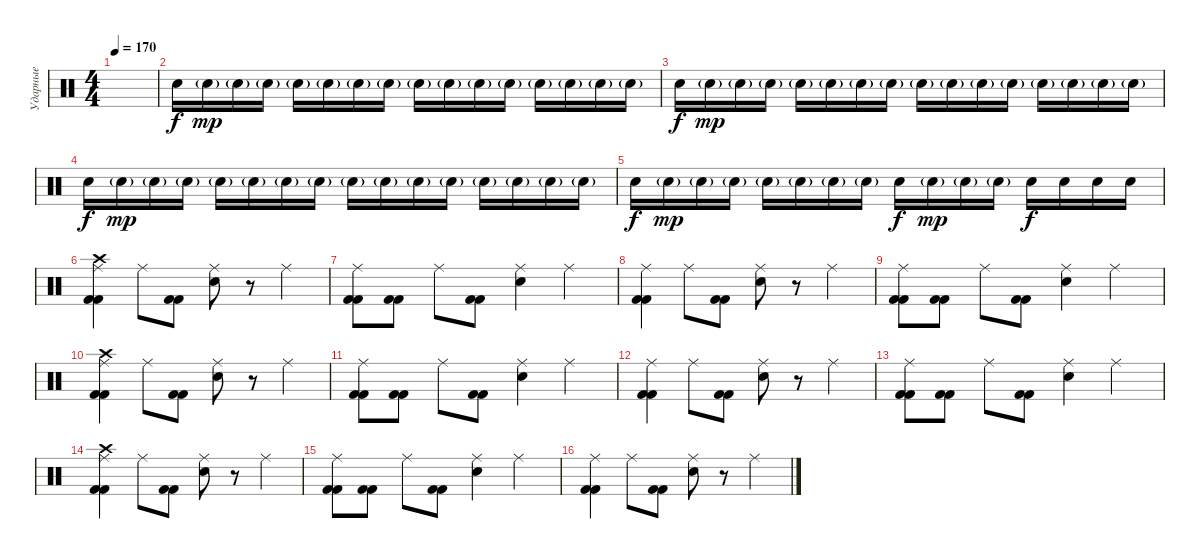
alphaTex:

\track ("Ударные" "Ударные") {instrument percussion}
\staff {score}
\articulation defaults
\ts (4 4)
\tempo 170
\clef neutral
\ks c
|
"Electric Snare (hit)".16{volume 7} "Electric Snare (hit)"{g}.16{dy mp volume 16} "Electric Snare (hit)"{g}.16 "Electric Snare (hit)"{g}.16 "Electric Snare (hit)"{g}.16 "Electric Snare (hit)"{g}.16 "Electric Snare (hit)"{g}.16 "Electric Snare (hit)"{g}.16 "Electric Snare (hit)"{g}.16 "Electric Snare (hit)"{g}.16 "Electric Snare (hit)"{g}.16 "Electric Snare (hit)"{g}.16 "Electric Snare (hit)"{g}.16 "Electric Snare (hit)"{g}.16 "Electric Snare (hit)"{g}.16 "Electric Snare (hit)"{g}.16 |
"Electric Snare (hit)".16{dy f} "Electric Snare (hit)"{g}.16{dy mp} "Electric Snare (hit)"{g}.16 "Electric Snare (hit)"{g}.16 "Electric Snare (hit)"{g}.16 "Electric Snare (hit)"{g}.16 "Electric Snare (hit)"{g}.16 "Electric Snare (hit)"{g}.16 "Electric Snare (hit)"{g}.16 "Electric Snare (hit)"{g}.16 "Electric Snare (hit)"{g}.16 "Electric Snare (hit)"{g}.16 "Electric Snare (hit)"{g}.16 "Electric Snare (hit)"{g}.16 "Electric Snare (hit)"{g}.16 "Electric Snare (hit)"{g}.16 |
"Electric Snare (hit)".16{dy f} "Electric Snare (hit)"{g}.16{dy mp} "Electric Snare (hit)"{g}.16 "Electric Snare (hit)"{g}.16 "Electric Snare (hit)"{g}.16 "Electric Snare (hit)"{g}.16 "Electric Snare (hit)"{g}.16 "Electric Snare (hit)"{g}.16 "Electric Snare (hit)"{g}.16 "Electric Snare (hit)"{g}.16 "Electric Snare (hit)"{g}.16 "Electric Snare (hit)"{g}.16 "Electric Snare (hit)"{g}.16 "Electric Snare (hit)"{g}.16 "Electric Snare (hit)"{g}.16 "Electric Snare (hit)"{g}.16 |
"Electric Snare (hit)".16{dy f} "Electric Snare (hit)"{g}.16{dy mp} "Electric Snare (hit)"{g}.16 "Electric Snare (hit)"{g}.16 "Electric Snare (hit)"{g}.16 "Electric Snare (hit)"{g}.16 "Electric Snare (hit)"{g}.16 "Electric Snare (hit)"{g}.16 "Electric Snare (hit)".16{dy f} "Electric Snare (hit)"{g}.16{dy mp} "Electric Snare (hit)"{g}.16 "Electric Snare (hit)"{g}.16 "Electric Snare (hit)".16{dy f} "Electric Snare (hit)".16 "Electric Snare (hit)".16 "Electric Snare (hit)".16 |
("Crash high (hit)" "Ride (middle)" "Kick (hit) 2" "Kick (hit) 2").4 "Ride (middle)".8 ("Kick (hit) 2" "Kick (hit) 2").8 ("Ride (middle)" "Electric Snare (hit)").8 r.8 "Ride (middle)".4 |
("Ride (middle)" "Kick (hit) 2" "Kick (hit) 2").8 ("Kick (hit) 2" "Kick (hit) 2").8 "Ride (middle)".8 ("Kick (hit) 2" "Kick (hit) 2").8 ("Ride (middle)" "Electric Snare (hit)").4 "Ride (middle)".4 |
("Ride (middle)" "Kick (hit) 2" "Kick (hit) 2").4 "Ride (middle)".8 ("Kick (hit) 2" "Kick (hit) 2").8 ("Ride (middle)" "Electric Snare (hit)").8 r.8 "Ride (middle)".4 |
("Ride (middle)" "Kick (hit) 2" "Kick (hit) 2").8 ("Kick (hit) 2" "Kick (hit) 2").8 "Ride (middle)".8 ("Kick (hit) 2" "Kick (hit) 2").8 ("Ride (middle)" "Electric Snare (hit)").4 "Ride (middle)".4 |
("Crash high (hit)" "Ride (middle)" "Kick (hit) 2" "Kick (hit) 2").4 "Ride (middle)".8 ("Kick (hit) 2" "Kick (hit) 2").8 ("Ride (middle)" "Electric Snare (hit)").8 r.8 "Ride (middle)".4 |
("Ride (middle)" "Kick (hit) 2" "Kick (hit) 2").8 ("Kick (hit) 2" "Kick (hit) 2").8 "Ride (middle)".8 ("Kick (hit) 2" "Kick (hit) 2").8 ("Ride (middle)" "Electric Snare (hit)").4 "Ride (middle)".4 |
("Ride (middle)" "Kick (hit) 2" "Kick (hit) 2").4 "Ride (middle)".8 ("Kick (hit) 2" "Kick (hit) 2").8 ("Ride (middle)" "Electric Snare (hit)").8 r.8 "Ride (middle)".4 |
("Ride (middle)" "Kick (hit) 2" "Kick (hit) 2").8 ("Kick (hit) 2" "Kick (hit) 2").8 "Ride (middle)".8 ("Kick (hit) 2" "Kick (hit) 2").8 ("Ride (middle)" "Electric Snare (hit)").4 "Ride (middle)".4 |
("Crash high (hit)" "Ride (middle)" "Kick (hit) 2" "Kick (hit) 2").4 "Ride (middle)".8 ("Kick (hit) 2" "Kick (hit) 2").8 ("Ride (middle)" "Electric Snare (hit)").8 r.8 "Ride (middle)".4 |
("Ride (middle)" "Kick (hit) 2" "Kick (hit) 2").8 ("Kick (hit) 2" "Kick (hit) 2").8 "Ride (middle)".8 ("Kick (hit) 2" "Kick (hit) 2").8 ("Ride (middle)" "Electric Snare (hit)").4 "Ride (middle)".4 |
("Ride (middle)" "Kick (hit) 2" "Kick (hit) 2").4 "Ride (middle)".8 ("Kick (hit) 2" "Kick (hit) 2").8 ("Ride (middle)" "Electric Snare (hit)").8 r.8 "Ride (middle)".4
